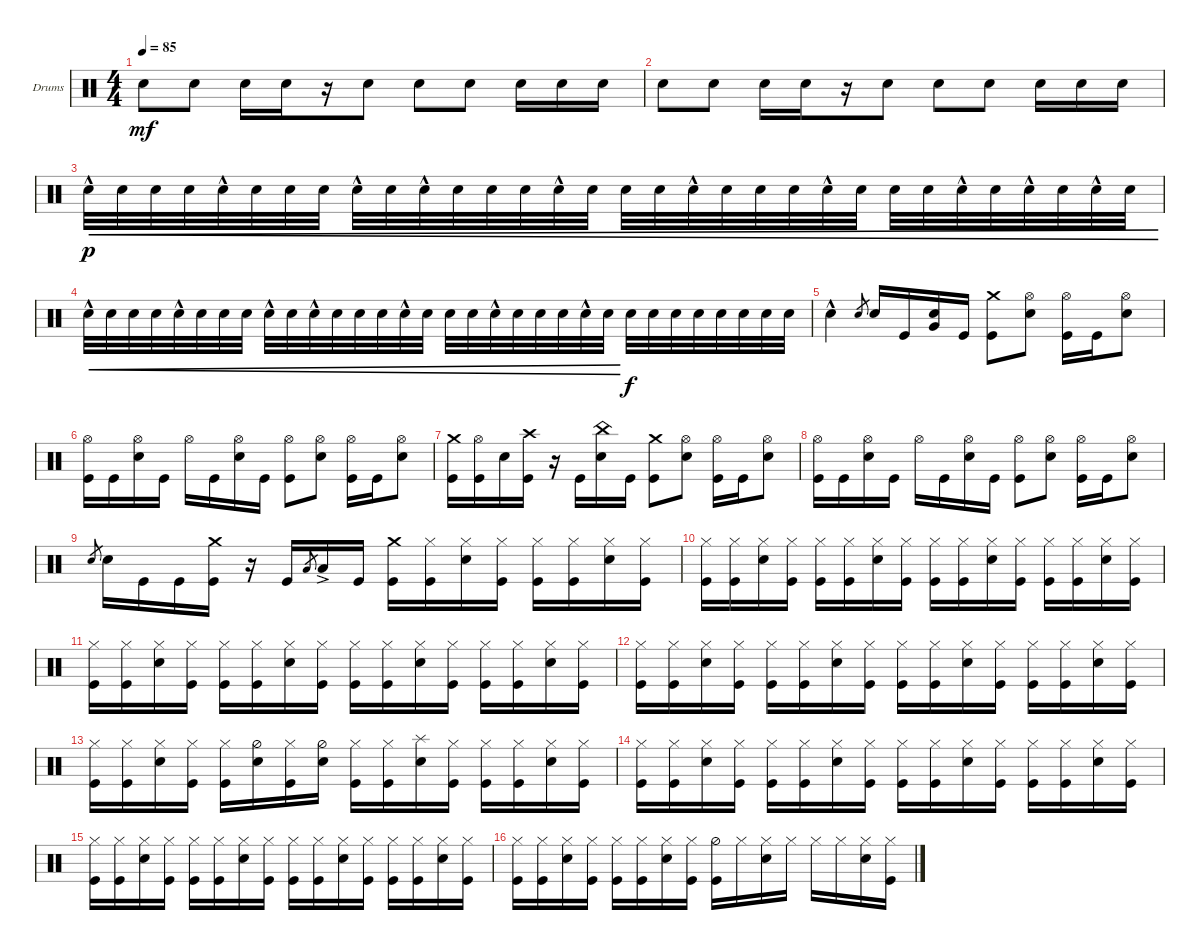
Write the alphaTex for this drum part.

\defaultSystemsLayout 4
\bracketExtendMode groupsimilarinstruments
\firstSystemTrackNameOrientation horizontal
\otherSystemsTrackNameOrientation horizontal
\track ("Drumkit" "Drums") {instrument percussion}
\staff {score}
\articulation defaults
\ts (4 4)
\tempo 85
\clef neutral
\ks c "Snare (hit) 2".8{dy mf} "Snare (hit) 2".8 "Snare (hit) 2".16 "Snare (hit) 2".16
r.16 "Snare (hit) 2".8 "Snare (hit) 2".8 "Snare (hit) 2".8 "Snare (hit) 2".16 "Snare (hit) 2".16 "Snare (hit) 2".16 |
"Snare (hit) 2".8 "Snare (hit) 2".8 "Snare (hit) 2".16 "Snare (hit) 2".16 r.16 "Snare (hit) 2".8 "Snare (hit) 2".8 "Snare (hit) 2".8 "Snare (hit) 2".16 "Snare (hit) 2".16 "Snare (hit) 2".16 |
"Snare (hit) 2"{hac}.32{cre dy p} "Snare (hit) 2".32{cre} "Snare (hit) 2".32{cre} "Snare (hit) 2".32{cre} "Snare (hit) 2"{hac}.32{cre} "Snare (hit) 2".32{cre} "Snare (hit) 2".32{cre} "Snare (hit) 2".32{cre} "Snare (hit) 2"{hac}.32{cre} "Snare (hit) 2".32{cre} "Snare (hit) 2"{hac}.32{cre} "Snare (hit) 2".32{cre} "Snare (hit) 2".32{cre} "Snare (hit) 2".32{cre} "Snare (hit) 2"{hac}.32{cre} "Snare (hit) 2".32{cre} "Snare (hit) 2".32{cre} "Snare (hit) 2".32{cre} "Snare (hit) 2"{hac}.32{cre} "Snare (hit) 2".32{cre} "Snare (hit) 2".32{cre} "Snare (hit) 2".32{cre} "Snare (hit) 2"{hac}.32{cre} "Snare (hit) 2".32{cre} "Snare (hit) 2".32{cre} "Snare (hit) 2".32{cre} "Snare (hit) 2"{hac}.32{cre} "Snare (hit) 2".32{cre} "Snare (hit) 2"{hac}.32{cre} "Snare (hit) 2".32{cre} "Snare (hit) 2"{hac}.32{cre} "Snare (hit) 2".32{cre} |
"Snare (hit) 2"{hac}.32{cre} "Snare (hit) 2".32{cre} "Snare (hit) 2".32{cre} "Snare (hit) 2".32{cre} "Snare (hit) 2"{hac}.32{cre} "Snare (hit) 2".32{cre} "Snare (hit) 2".32{cre} "Snare (hit) 2".32{cre} "Snare (hit) 2"{hac}.32{cre} "Snare (hit) 2".32{cre} "Snare (hit) 2"{hac}.32{cre} "Snare (hit) 2".32{cre} "Snare (hit) 2".32{cre} "Snare (hit) 2".32{cre} "Snare (hit) 2"{hac}.32{cre} "Snare (hit) 2".32{cre} "Snare (hit) 2".32{cre} "Snare (hit) 2".32{cre} "Snare (hit) 2"{hac}.32{cre} "Snare (hit) 2".32{cre} "Snare (hit) 2".32{cre} "Snare (hit) 2".32{cre} "Snare (hit) 2"{hac}.32{cre} "Snare (hit) 2".32{cre} "Snare (hit) 2".32{dy f} "Snare (hit) 2".32 "Snare (hit) 2".32 "Snare (hit) 2".32 "Snare (hit) 2".32 "Snare (hit) 2".32 "Snare (hit) 2".32 "Snare (hit) 2".32 |
"Snare (hit) 2"{hac}.4 "Snare (hit) 2".8{gr} "Snare (hit) 2".16 "Kick (hit)".16 ("Snare (hit) 2" "Very Low Tom (hit)").16 "Kick (hit)".16 ("Kick (hit)" "Crash medium (hit)").8 ("Snare (hit) 2" "Hi-Hat (open)").8 ("Kick (hit)" "Hi-Hat (open)").16 "Kick (hit)".16 ("Snare (hit) 2" "Hi-Hat (open)").8 |
("Kick (hit)" "Hi-Hat (open)").16 "Kick (hit)".16 ("Snare (hit) 2" "Hi-Hat (open)").16 "Kick (hit)".16 "Hi-Hat (open)".16 "Kick (hit)".16 ("Snare (hit) 2" "Hi-Hat (open)").16 "Kick (hit)".16 ("Kick (hit)" "Hi-Hat (open)").8 ("Snare (hit) 2" "Hi-Hat (open)").8 ("Kick (hit)" "Hi-Hat (open)").16 "Kick (hit)".16 ("Snare (hit) 2" "Hi-Hat (open)").8 |
("Kick (hit)" "Crash medium (hit)").16 ("Kick (hit)" "Hi-Hat (open)").16 "Snare (hit) 2".16 ("Kick (hit)" "Crash high (hit)").16 r.16 "Kick (hit)".16 ("Snare (hit) 2" "China (hit)").16 "Kick (hit)".16 ("Kick (hit)" "Crash medium (hit)").8 ("Snare (hit) 2" "Hi-Hat (open)").8 ("Kick (hit)" "Hi-Hat (open)").16 "Kick (hit)".16 ("Snare (hit) 2" "Hi-Hat (open)").8 |
("Kick (hit)" "Hi-Hat (open)").16 "Kick (hit)".16 ("Snare (hit) 2" "Hi-Hat (open)").16 "Kick (hit)".16 "Hi-Hat (open)".16 "Kick (hit)".16 ("Snare (hit) 2" "Hi-Hat (open)").16 "Kick (hit)".16 ("Kick (hit)" "Hi-Hat (open)").8 ("Snare (hit) 2" "Hi-Hat (open)").8 ("Kick (hit)" "Hi-Hat (open)").16 "Kick (hit)".16 ("Snare (hit) 2" "Hi-Hat (open)").8 |
"Snare (hit) 2".8{gr} "Snare (hit) 2".16 "Kick (hit)".16 "Kick (hit)".16 ("Kick (hit)" "Crash medium (hit)").16 r.16 "Kick (hit)".16 "Low Tom (hit)".8{gr} "Low Tom (hit)"{ac}.16 "Kick (hit)".16 ("Kick (hit)" "Crash medium (hit)").16 ("Kick (hit)" "Hi-Hat (closed)").16 ("Snare (hit) 2" "Hi-Hat (closed)").16 ("Kick (hit)" "Hi-Hat (closed)").16 ("Kick (hit)" "Hi-Hat (closed)").16 ("Kick (hit)" "Hi-Hat (closed)").16 ("Snare (hit) 2" "Hi-Hat (closed)").16 ("Kick (hit)" "Hi-Hat (closed)").16 |
("Kick (hit)" "Hi-Hat (closed)").16 ("Kick (hit)" "Hi-Hat (closed)").16 ("Snare (hit) 2" "Hi-Hat (closed)").16 ("Kick (hit)" "Hi-Hat (closed)").16 ("Kick (hit)" "Hi-Hat (closed)").16 ("Kick (hit)" "Hi-Hat (closed)").16 ("Snare (hit) 2" "Hi-Hat (closed)").16 ("Kick (hit)" "Hi-Hat (closed)").16 ("Kick (hit)" "Hi-Hat (closed)").16 ("Kick (hit)" "Hi-Hat (closed)").16 ("Snare (hit) 2" "Hi-Hat (closed)").16 ("Kick (hit)" "Hi-Hat (closed)").16 ("Kick (hit)" "Hi-Hat (closed)").16 ("Kick (hit)" "Hi-Hat (closed)").16 ("Snare (hit) 2" "Hi-Hat (closed)").16 ("Kick (hit)" "Hi-Hat (closed)").16 |
("Kick (hit)" "Hi-Hat (closed)").16 ("Kick (hit)" "Hi-Hat (closed)").16 ("Snare (hit) 2" "Hi-Hat (closed)").16 ("Kick (hit)" "Hi-Hat (closed)").16 ("Kick (hit)" "Hi-Hat (closed)").16 ("Kick (hit)" "Hi-Hat (closed)").16 ("Snare (hit) 2" "Hi-Hat (closed)").16 ("Kick (hit)" "Hi-Hat (closed)").16 ("Kick (hit)" "Hi-Hat (closed)").16 ("Kick (hit)" "Hi-Hat (closed)").16 ("Snare (hit) 2" "Hi-Hat (closed)").16 ("Kick (hit)" "Hi-Hat (closed)").16 ("Kick (hit)" "Hi-Hat (closed)").16 ("Kick (hit)" "Hi-Hat (closed)").16 ("Snare (hit) 2" "Hi-Hat (closed)").16 ("Kick (hit)" "Hi-Hat (closed)").16 |
("Kick (hit)" "Hi-Hat (closed)").16 ("Kick (hit)" "Hi-Hat (closed)").16 ("Snare (hit) 2" "Hi-Hat (closed)").16 ("Kick (hit)" "Hi-Hat (closed)").16 ("Kick (hit)" "Hi-Hat (closed)").16 ("Kick (hit)" "Hi-Hat (closed)").16 ("Snare (hit) 2" "Hi-Hat (closed)").16 ("Kick (hit)" "Hi-Hat (closed)").16 ("Kick (hit)" "Hi-Hat (closed)").16 ("Kick (hit)" "Hi-Hat (closed)").16 ("Snare (hit) 2" "Hi-Hat (closed)").16 ("Kick (hit)" "Hi-Hat (closed)").16 ("Kick (hit)" "Hi-Hat (closed)").16 ("Kick (hit)" "Hi-Hat (closed)").16 ("Snare (hit) 2" "Hi-Hat (closed)").16 ("Kick (hit)" "Hi-Hat (closed)").16 |
("Kick (hit)" "Hi-Hat (closed)").16 ("Kick (hit)" "Hi-Hat (closed)").16 ("Snare (hit) 2" "Hi-Hat (closed)").16 ("Kick (hit)" "Hi-Hat (closed)").16 ("Kick (hit)" "Hi-Hat (closed)").16 ("Snare (hit) 2" "Hi-Hat (half)").16 ("Kick (hit)" "Hi-Hat (closed)").16 ("Snare (hit) 2" "Hi-Hat (half)").16 ("Kick (hit)" "Hi-Hat (closed)").16 ("Kick (hit)" "Hi-Hat (closed)").16 ("Snare (hit) 2" "Splash (hit)").16 ("Kick (hit)" "Hi-Hat (closed)").16 ("Kick (hit)" "Hi-Hat (closed)").16 ("Kick (hit)" "Hi-Hat (closed)").16 ("Snare (hit) 2" "Hi-Hat (closed)").16 ("Kick (hit)" "Hi-Hat (closed)").16 |
("Kick (hit)" "Hi-Hat (closed)").16 ("Kick (hit)" "Hi-Hat (closed)").16 ("Snare (hit) 2" "Hi-Hat (closed)").16 ("Kick (hit)" "Hi-Hat (closed)").16 ("Kick (hit)" "Hi-Hat (closed)").16 ("Kick (hit)" "Hi-Hat (closed)").16 ("Snare (hit) 2" "Hi-Hat (closed)").16 ("Kick (hit)" "Hi-Hat (closed)").16 ("Kick (hit)" "Hi-Hat (closed)").16 ("Kick (hit)" "Hi-Hat (closed)").16 ("Snare (hit) 2" "Hi-Hat (closed)").16 ("Kick (hit)" "Hi-Hat (closed)").16 ("Kick (hit)" "Hi-Hat (closed)").16 ("Kick (hit)" "Hi-Hat (closed)").16 ("Snare (hit) 2" "Hi-Hat (closed)").16 ("Kick (hit)" "Hi-Hat (closed)").16 |
("Kick (hit)" "Hi-Hat (closed)").16 ("Kick (hit)" "Hi-Hat (closed)").16 ("Snare (hit) 2" "Hi-Hat (closed)").16 ("Kick (hit)" "Hi-Hat (closed)").16 ("Kick (hit)" "Hi-Hat (closed)").16 ("Kick (hit)" "Hi-Hat (closed)").16 ("Snare (hit) 2" "Hi-Hat (closed)").16 ("Kick (hit)" "Hi-Hat (closed)").16 ("Kick (hit)" "Hi-Hat (closed)").16 ("Kick (hit)" "Hi-Hat (closed)").16 ("Snare (hit) 2" "Hi-Hat (closed)").16 ("Kick (hit)" "Hi-Hat (closed)").16 ("Kick (hit)" "Hi-Hat (closed)").16 ("Kick (hit)" "Hi-Hat (closed)").16 ("Snare (hit) 2" "Hi-Hat (closed)").16 ("Kick (hit)" "Hi-Hat (closed)").16 |
("Kick (hit)" "Hi-Hat (closed)").16 ("Kick (hit)" "Hi-Hat (closed)").16 ("Snare (hit) 2" "Hi-Hat (closed)").16 ("Kick (hit)" "Hi-Hat (closed)").16 ("Kick (hit)" "Hi-Hat (closed)").16 ("Kick (hit)" "Hi-Hat (closed)").16 ("Snare (hit) 2" "Hi-Hat (closed)").16 ("Kick (hit)" "Hi-Hat (closed)").16 ("Kick (hit)" "Hi-Hat (half)").16 "Hi-Hat (closed)".16 ("Snare (hit) 2" "Hi-Hat (closed)").16 "Hi-Hat (closed)".16 "Hi-Hat (closed)".16 "Hi-Hat (closed)".16 ("Snare (hit) 2" "Hi-Hat (closed)").16 ("Kick (hit)" "Hi-Hat (closed)").16
